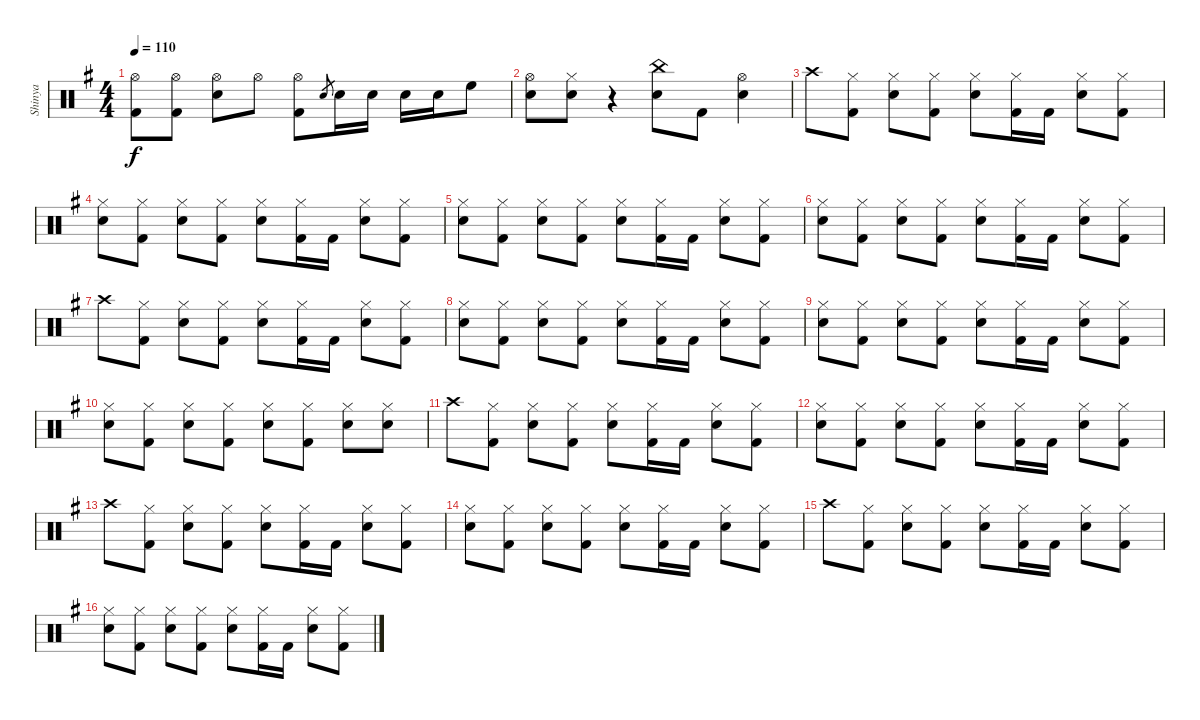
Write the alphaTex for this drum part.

\track ("Shinya" "Shinya") {instrument percussion}
\staff {score}
\articulation defaults
\ts (4 4)
\tempo 110
\clef neutral
\ks g
("Hi-Hat (open)" "Kick (hit) 2").8{dy f} ("Hi-Hat (open)" "Kick (hit) 2").8 ("Hi-Hat (open)" "Electric Snare (hit)").8 "Hi-Hat (open)".8 ("Hi-Hat (open)" "Kick (hit) 2").8 "Electric Snare (hit)".8{gr} "Electric Snare (hit)".16 "Electric Snare (hit)".16 "Electric Snare (hit)".16 "Electric Snare (hit)".16 "High Floor Tom (hit)".8 |
("Hi-Hat (open)" "Electric Snare (hit)").8 ("Hi-Hat (closed)" "Electric Snare (hit)").8 r.4 ("China (hit)" "Electric Snare (hit)").8 "Kick (hit) 2".8 ("Hi-Hat (open)" "Electric Snare (hit)").4 |
"Crash high (hit)".8 ("Hi-Hat (closed)" "Kick (hit) 2").8 ("Hi-Hat (closed)" "Electric Snare (hit)").8 ("Hi-Hat (closed)" "Kick (hit) 2").8 ("Hi-Hat (closed)" "Electric Snare (hit)").8 ("Hi-Hat (closed)" "Kick (hit) 2").16 "Kick (hit) 2".16 ("Hi-Hat (closed)" "Electric Snare (hit)").8 ("Hi-Hat (closed)" "Kick (hit) 2").8 |
("Hi-Hat (closed)" "Electric Snare (hit)").8 ("Hi-Hat (closed)" "Kick (hit) 2").8 ("Hi-Hat (closed)" "Electric Snare (hit)").8 ("Hi-Hat (closed)" "Kick (hit) 2").8 ("Hi-Hat (closed)" "Electric Snare (hit)").8 ("Hi-Hat (closed)" "Kick (hit) 2").16 "Kick (hit) 2".16 ("Hi-Hat (closed)" "Electric Snare (hit)").8 ("Hi-Hat (closed)" "Kick (hit) 2").8 |
("Hi-Hat (closed)" "Electric Snare (hit)").8 ("Hi-Hat (closed)" "Kick (hit) 2").8 ("Hi-Hat (closed)" "Electric Snare (hit)").8 ("Hi-Hat (closed)" "Kick (hit) 2").8 ("Hi-Hat (closed)" "Electric Snare (hit)").8 ("Hi-Hat (closed)" "Kick (hit) 2").16 "Kick (hit) 2".16 ("Hi-Hat (closed)" "Electric Snare (hit)").8 ("Hi-Hat (closed)" "Kick (hit) 2").8 |
("Hi-Hat (closed)" "Electric Snare (hit)").8 ("Hi-Hat (closed)" "Kick (hit) 2").8 ("Hi-Hat (closed)" "Electric Snare (hit)").8 ("Hi-Hat (closed)" "Kick (hit) 2").8 ("Hi-Hat (closed)" "Electric Snare (hit)").8 ("Hi-Hat (closed)" "Kick (hit) 2").16 "Kick (hit) 2".16 ("Hi-Hat (closed)" "Electric Snare (hit)").8 ("Hi-Hat (closed)" "Kick (hit) 2").8 |
"Crash high (hit)".8 ("Hi-Hat (closed)" "Kick (hit) 2").8 ("Hi-Hat (closed)" "Electric Snare (hit)").8 ("Hi-Hat (closed)" "Kick (hit) 2").8 ("Hi-Hat (closed)" "Electric Snare (hit)").8 ("Hi-Hat (closed)" "Kick (hit) 2").16 "Kick (hit) 2".16 ("Hi-Hat (closed)" "Electric Snare (hit)").8 ("Hi-Hat (closed)" "Kick (hit) 2").8 |
("Hi-Hat (closed)" "Electric Snare (hit)").8 ("Hi-Hat (closed)" "Kick (hit) 2").8 ("Hi-Hat (closed)" "Electric Snare (hit)").8 ("Hi-Hat (closed)" "Kick (hit) 2").8 ("Hi-Hat (closed)" "Electric Snare (hit)").8 ("Hi-Hat (closed)" "Kick (hit) 2").16 "Kick (hit) 2".16 ("Hi-Hat (closed)" "Electric Snare (hit)").8 ("Hi-Hat (closed)" "Kick (hit) 2").8 |
("Hi-Hat (closed)" "Electric Snare (hit)").8 ("Hi-Hat (closed)" "Kick (hit) 2").8 ("Hi-Hat (closed)" "Electric Snare (hit)").8 ("Hi-Hat (closed)" "Kick (hit) 2").8 ("Hi-Hat (closed)" "Electric Snare (hit)").8 ("Hi-Hat (closed)" "Kick (hit) 2").16 "Kick (hit) 2".16 ("Hi-Hat (closed)" "Electric Snare (hit)").8 ("Hi-Hat (closed)" "Kick (hit) 2").8 |
("Hi-Hat (closed)" "Electric Snare (hit)").8 ("Hi-Hat (closed)" "Kick (hit) 2").8 ("Hi-Hat (closed)" "Electric Snare (hit)").8 ("Hi-Hat (closed)" "Kick (hit) 2").8 ("Hi-Hat (closed)" "Electric Snare (hit)").8 ("Hi-Hat (closed)" "Kick (hit) 2").8 ("Hi-Hat (closed)" "Electric Snare (hit)").8 ("Hi-Hat (closed)" "Electric Snare (hit)").8 |
"Crash high (hit)".8 ("Hi-Hat (closed)" "Kick (hit) 2").8 ("Hi-Hat (closed)" "Electric Snare (hit)").8 ("Hi-Hat (closed)" "Kick (hit) 2").8 ("Hi-Hat (closed)" "Electric Snare (hit)").8 ("Hi-Hat (closed)" "Kick (hit) 2").16 "Kick (hit) 2".16 ("Hi-Hat (closed)" "Electric Snare (hit)").8 ("Hi-Hat (closed)" "Kick (hit) 2").8 |
("Hi-Hat (closed)" "Electric Snare (hit)").8 ("Hi-Hat (closed)" "Kick (hit) 2").8 ("Hi-Hat (closed)" "Electric Snare (hit)").8 ("Hi-Hat (closed)" "Kick (hit) 2").8 ("Hi-Hat (closed)" "Electric Snare (hit)").8 ("Hi-Hat (closed)" "Kick (hit) 2").16 "Kick (hit) 2".16 ("Hi-Hat (closed)" "Electric Snare (hit)").8 ("Hi-Hat (closed)" "Kick (hit) 2").8 |
"Crash high (hit)".8 ("Hi-Hat (closed)" "Kick (hit) 2").8 ("Hi-Hat (closed)" "Electric Snare (hit)").8 ("Hi-Hat (closed)" "Kick (hit) 2").8 ("Hi-Hat (closed)" "Electric Snare (hit)").8 ("Hi-Hat (closed)" "Kick (hit) 2").16 "Kick (hit) 2".16 ("Hi-Hat (closed)" "Electric Snare (hit)").8 ("Hi-Hat (closed)" "Kick (hit) 2").8 |
("Hi-Hat (closed)" "Electric Snare (hit)").8 ("Hi-Hat (closed)" "Kick (hit) 2").8 ("Hi-Hat (closed)" "Electric Snare (hit)").8 ("Hi-Hat (closed)" "Kick (hit) 2").8 ("Hi-Hat (closed)" "Electric Snare (hit)").8 ("Hi-Hat (closed)" "Kick (hit) 2").16 "Kick (hit) 2".16 ("Hi-Hat (closed)" "Electric Snare (hit)").8 ("Hi-Hat (closed)" "Kick (hit) 2").8 |
"Crash high (hit)".8 ("Hi-Hat (closed)" "Kick (hit) 2").8 ("Hi-Hat (closed)" "Electric Snare (hit)").8 ("Hi-Hat (closed)" "Kick (hit) 2").8 ("Hi-Hat (closed)" "Electric Snare (hit)").8 ("Hi-Hat (closed)" "Kick (hit) 2").16 "Kick (hit) 2".16 ("Hi-Hat (closed)" "Electric Snare (hit)").8 ("Hi-Hat (closed)" "Kick (hit) 2").8 |
("Hi-Hat (closed)" "Electric Snare (hit)").8 ("Hi-Hat (closed)" "Kick (hit) 2").8 ("Hi-Hat (closed)" "Electric Snare (hit)").8 ("Hi-Hat (closed)" "Kick (hit) 2").8 ("Hi-Hat (closed)" "Electric Snare (hit)").8 ("Hi-Hat (closed)" "Kick (hit) 2").16 "Kick (hit) 2".16 ("Hi-Hat (closed)" "Electric Snare (hit)").8 ("Hi-Hat (closed)" "Kick (hit) 2").8
